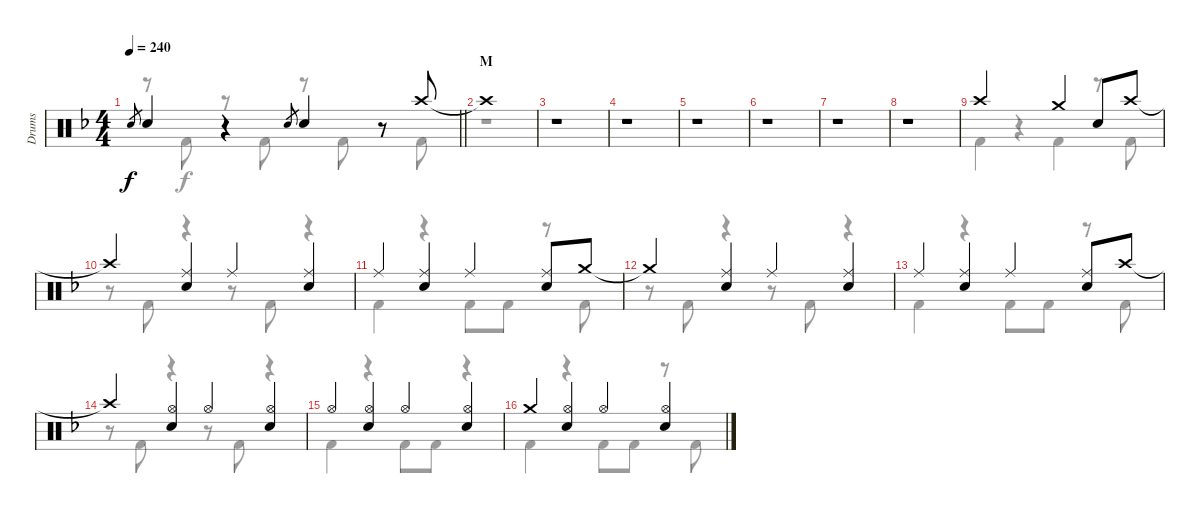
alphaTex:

\track ("Drums" "Drums") {instrument percussion}
\staff {score}
\articulation defaults
\voice
\ts (4 4)
\tempo 240
\clef neutral
\barLineRight lightlight
\ks f "Snare (hit) 2".8{gr dy f} "Snare (hit) 2".4
r.4 "Snare (hit) 2".8{gr} "Snare (hit) 2".4 r.8 "Crash high (hit)".8 |
\section ("" "M")
"Crash high (hit)"{t}.1 |
r.1 |
r.1 |
r.1 |
r.1 |
r.1 |
r.1 |
"Crash high (hit)".2 "Crash medium (hit)".4 "Snare (hit) 2".8 "Crash high (hit)".8 |
"Crash high (hit)"{t}.4 ("Ride (middle)" "Snare (hit) 2").4 "Ride (middle)".4 ("Ride (middle)" "Snare (hit) 2").4 |
"Ride (middle)".4 ("Ride (middle)" "Snare (hit) 2").4 "Ride (middle)".4 ("Ride (middle)" "Snare (hit) 2").8 "Crash medium (hit)".8 |
"Crash medium (hit)"{t}.4 ("Ride (middle)" "Snare (hit) 2").4 "Ride (middle)".4 ("Ride (middle)" "Snare (hit) 2").4 |
"Ride (middle)".4 ("Ride (middle)" "Snare (hit) 2").4 "Ride (middle)".4 ("Ride (middle)" "Snare (hit) 2").8 "Crash high (hit)".8 |
"Crash high (hit)"{t}.4 ("Hi-Hat (open)" "Snare (hit) 2").4 "Hi-Hat (open)".4 ("Hi-Hat (open)" "Snare (hit) 2").4 |
"Hi-Hat (open)".4 ("Hi-Hat (open)" "Snare (hit) 2").4 "Hi-Hat (open)".4 ("Hi-Hat (open)" "Snare (hit) 2").4 |
"Crash medium (hit)".4 ("Hi-Hat (open)" "Snare (hit) 2").4 "Hi-Hat (open)".4 ("Hi-Hat (open)" "Snare (hit) 2").4
\voice
\clef neutral
\ottava regular
\simile none
\barLineRight lightlight
\ks f
r.8{dy f} "Kick (hit) 2".8 r.8 "Kick (hit) 2".8 r.8 "Kick (hit) 2".8 r.8 "Kick (hit) 2".8 |
r.1 |
r.1 |
r.1 |
r.1 |
r.1 |
r.1 |
r.1 |
"Kick (hit) 2".4 r.4 "Kick (hit) 2".4 r.8 "Kick (hit) 2".8 |
r.8 "Kick (hit) 2".8 r.4 r.8 "Kick (hit) 2".8 r.4 |
"Kick (hit) 2".4 r.4 "Kick (hit) 2".8 "Kick (hit) 2".8 r.8 "Kick (hit) 2".8 |
r.8 "Kick (hit) 2".8 r.4 r.8 "Kick (hit) 2".8 r.4 |
"Kick (hit) 2".4 r.4 "Kick (hit) 2".8 "Kick (hit) 2".8 r.8 "Kick (hit) 2".8 |
r.8 "Kick (hit) 2".8 r.4 r.8 "Kick (hit) 2".8 r.4 |
"Kick (hit) 2".4 r.4 "Kick (hit) 2".8 "Kick (hit) 2".8 r.4 |
"Kick (hit) 2".4 r.4 "Kick (hit) 2".8 "Kick (hit) 2".8 r.8 "Kick (hit) 2".8
